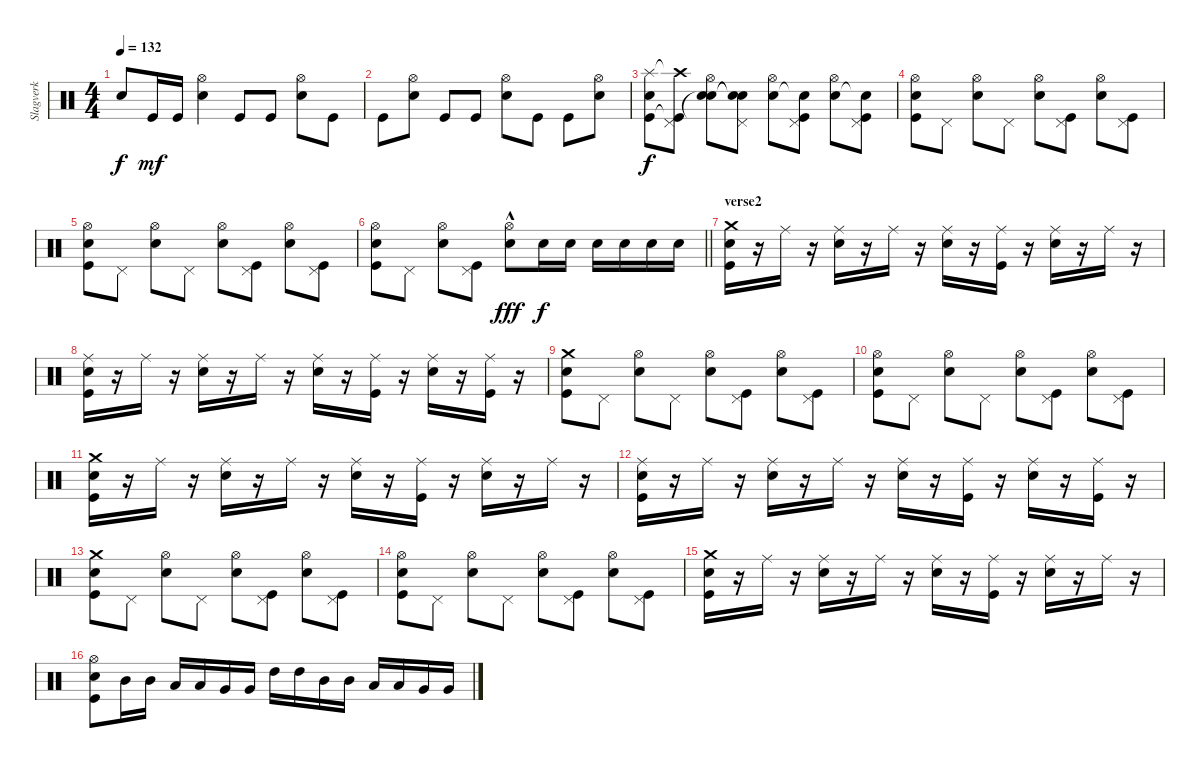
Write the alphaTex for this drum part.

\track ("Slagverk" "Slagverk") {instrument percussion}
\staff
\articulation defaults
\ts (4 4)
\tempo 132
\clef neutral
\ks c "Snare (hit)"{t}.8{dy f} "Kick (hit)".16{dy mf} "Kick (hit)".16
("Hi-Hat (open)" "Snare (hit) 2").4 "Kick (hit)".8 "Kick (hit)".8 ("Hi-Hat (open)" "Snare (hit) 2").8 "Kick (hit)".8 |
"Kick (hit)".8 ("Hi-Hat (open)" "Snare (hit) 2").8 "Kick (hit)".8 "Kick (hit)".8 ("Hi-Hat (open)" "Snare (hit) 2").8 "Kick (hit)".8 "Kick (hit)".8 ("Hi-Hat (open)" "Snare (hit) 2").8 |
("Splash (hit)" "Snare (hit) 2" "Kick (hit)").8{dy f} ("Crash high (hit)"{t} "Pedal Hi-Hat (hit)" "Kick (hit)"{t}).8 ("Hi-Hat (open)" "Snare (hit)"{t} "Snare (hit) 2").8 ("Pedal Hi-Hat (hit)" "Snare (hit)"{t} "Snare (hit) 2"{t}).8 ("Hi-Hat (open)" "Snare (hit) 2").8 ("Pedal Hi-Hat (hit)" "Snare (hit)"{t} "Kick (hit)").8 ("Hi-Hat (open)" "Snare (hit) 2").8 ("Pedal Hi-Hat (hit)" "Snare (hit)"{t} "Kick (hit)").8 |
("Hi-Hat (open)" "Snare (hit) 2" "Kick (hit)").8 "Pedal Hi-Hat (hit)".8 ("Hi-Hat (open)" "Snare (hit) 2").8 "Pedal Hi-Hat (hit)".8 ("Hi-Hat (open)" "Snare (hit) 2").8 ("Pedal Hi-Hat (hit)" "Kick (hit)").8 ("Hi-Hat (open)" "Snare (hit) 2").8 ("Pedal Hi-Hat (hit)" "Kick (hit)").8 |
("Hi-Hat (open)" "Snare (hit) 2" "Kick (hit)").8 "Pedal Hi-Hat (hit)".8 ("Hi-Hat (open)" "Snare (hit) 2").8 "Pedal Hi-Hat (hit)".8 ("Hi-Hat (open)" "Snare (hit) 2").8 ("Pedal Hi-Hat (hit)" "Kick (hit)").8 ("Hi-Hat (open)" "Snare (hit) 2").8 ("Pedal Hi-Hat (hit)" "Kick (hit)").8 |
\barLineRight lightlight
("Hi-Hat (open)" "Snare (hit) 2" "Kick (hit)").8 "Pedal Hi-Hat (hit)".8 ("Hi-Hat (open)" "Snare (hit) 2").8 ("Pedal Hi-Hat (hit)" "Kick (hit)").8 ("Hi-Hat (open)"{hac} "Snare (hit) 2").8{dy fff} "Snare (hit) 2".16{dy f} "Snare (hit) 2".16 "Snare (hit) 2".16 "Snare (hit) 2".16 "Snare (hit) 2".16 "Snare (hit) 2".16 |
\section ("" "verse2")
("Crash medium (hit)" "Snare (hit) 2" "Kick (hit)").16 r.16 "Ride (middle)".16 r.16 ("Ride (middle)" "Snare (hit) 2").16 r.16 "Ride (middle)".16 r.16 ("Ride (middle)" "Snare (hit) 2").16 r.16 ("Ride (middle)" "Kick (hit)").16 r.16 ("Ride (middle)" "Snare (hit) 2").16 r.16 "Ride (middle)".16 r.16 |
("Ride (middle)" "Snare (hit) 2" "Kick (hit)").16 r.16 "Ride (middle)".16 r.16 ("Ride (middle)" "Snare (hit) 2").16 r.16 "Ride (middle)".16 r.16 ("Ride (middle)" "Snare (hit) 2").16 r.16 ("Ride (middle)" "Kick (hit)").16 r.16 ("Ride (middle)" "Snare (hit) 2").16 r.16 ("Ride (middle)" "Kick (hit)").16 r.16 |
("Crash medium (hit)" "Snare (hit) 2" "Kick (hit)").8 "Pedal Hi-Hat (hit)".8 ("Hi-Hat (open)" "Snare (hit) 2").8 "Pedal Hi-Hat (hit)".8 ("Hi-Hat (open)" "Snare (hit) 2").8 ("Pedal Hi-Hat (hit)" "Kick (hit)").8 ("Hi-Hat (open)" "Snare (hit) 2").8 ("Pedal Hi-Hat (hit)" "Kick (hit)").8 |
("Hi-Hat (open)" "Snare (hit) 2" "Kick (hit)").8 "Pedal Hi-Hat (hit)".8 ("Hi-Hat (open)" "Snare (hit) 2").8 "Pedal Hi-Hat (hit)".8 ("Hi-Hat (open)" "Snare (hit) 2").8 ("Pedal Hi-Hat (hit)" "Kick (hit)").8 ("Hi-Hat (open)" "Snare (hit) 2").8 ("Pedal Hi-Hat (hit)" "Kick (hit)").8 |
("Crash medium (hit)" "Snare (hit) 2" "Kick (hit)").16 r.16 "Ride (middle)".16 r.16 ("Ride (middle)" "Snare (hit) 2").16 r.16 "Ride (middle)".16 r.16 ("Ride (middle)" "Snare (hit) 2").16 r.16 ("Ride (middle)" "Kick (hit)").16 r.16 ("Ride (middle)" "Snare (hit) 2").16 r.16 "Ride (middle)".16 r.16 |
("Ride (middle)" "Snare (hit) 2" "Kick (hit)").16 r.16 "Ride (middle)".16 r.16 ("Ride (middle)" "Snare (hit) 2").16 r.16 "Ride (middle)".16 r.16 ("Ride (middle)" "Snare (hit) 2").16 r.16 ("Ride (middle)" "Kick (hit)").16 r.16 ("Ride (middle)" "Snare (hit) 2").16 r.16 ("Ride (middle)" "Kick (hit)").16 r.16 |
("Crash medium (hit)" "Snare (hit) 2" "Kick (hit)").8 "Pedal Hi-Hat (hit)".8 ("Hi-Hat (open)" "Snare (hit) 2").8 "Pedal Hi-Hat (hit)".8 ("Hi-Hat (open)" "Snare (hit) 2").8 ("Pedal Hi-Hat (hit)" "Kick (hit)").8 ("Hi-Hat (open)" "Snare (hit) 2").8 ("Pedal Hi-Hat (hit)" "Kick (hit)").8 |
("Hi-Hat (open)" "Snare (hit) 2" "Kick (hit)").8 "Pedal Hi-Hat (hit)".8 ("Hi-Hat (open)" "Snare (hit) 2").8 "Pedal Hi-Hat (hit)".8 ("Hi-Hat (open)" "Snare (hit) 2").8 ("Pedal Hi-Hat (hit)" "Kick (hit)").8 ("Hi-Hat (open)" "Snare (hit) 2").8 ("Pedal Hi-Hat (hit)" "Kick (hit)").8 |
("Crash medium (hit)" "Snare (hit) 2" "Kick (hit)").16 r.16 "Ride (middle)".16 r.16 ("Ride (middle)" "Snare (hit) 2").16 r.16 "Ride (middle)".16 r.16 ("Ride (middle)" "Snare (hit) 2").16 r.16 ("Ride (middle)" "Kick (hit)").16 r.16 ("Ride (middle)" "Snare (hit) 2").16 r.16 "Ride (middle)".16 r.16 |
("Hi-Hat (open)" "Snare (hit) 2" "Kick (hit)").8 "Mid Tom (hit)".16 "Mid Tom (hit)".16 "Low Tom (hit)".16 "Low Tom (hit)".16 "Very Low Tom (hit)".16 "Very Low Tom (hit)".16 "High Tom (hit)".16 "High Tom (hit)".16 "Mid Tom (hit)".16 "Mid Tom (hit)".16 "Low Tom (hit)".16 "Low Tom (hit)".16 "Very Low Tom (hit)".16 "Very Low Tom (hit)".16
